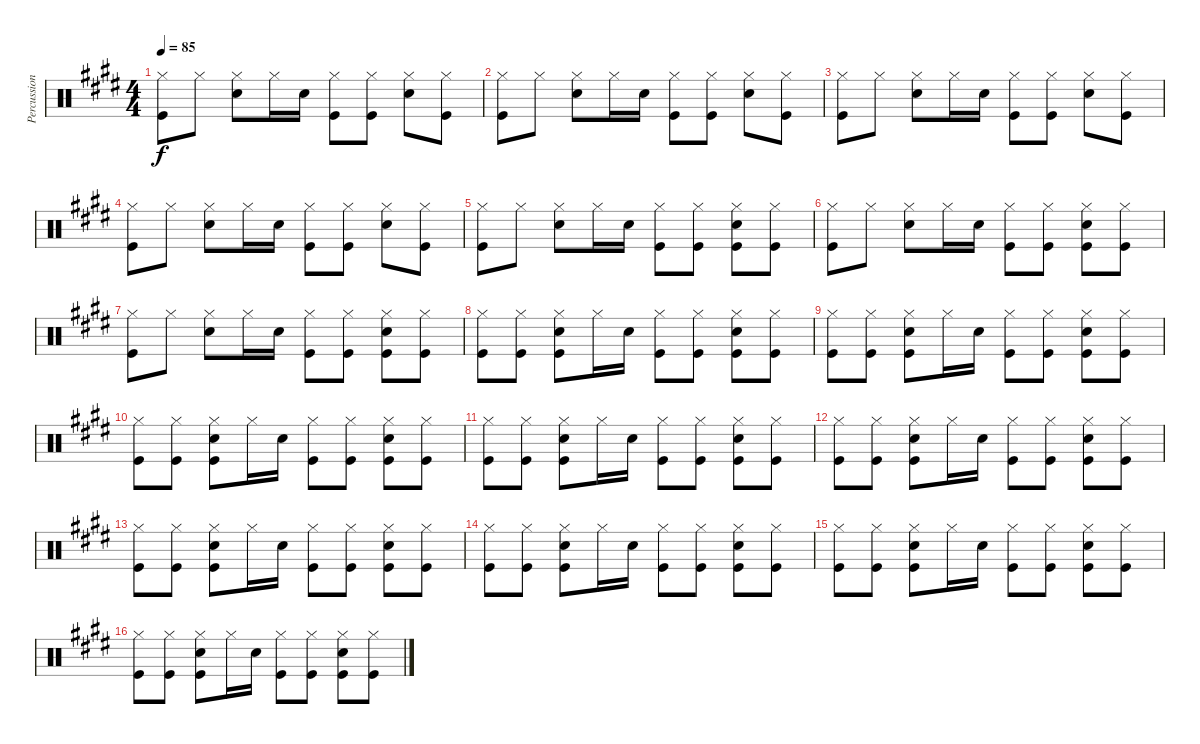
\track ("Percussion" "Percussion") {instrument percussion}
\staff {score}
\articulation defaults
\ts (4 4)
\tempo 85
\clef neutral
\ks e
("Hi-Hat (closed)" "Kick (hit)").8{dy f} "Hi-Hat (closed)".8 ("Hi-Hat (closed)" "Snare (hit) 2").8 "Hi-Hat (closed)".16 "Snare (hit) 2".16 ("Hi-Hat (closed)" "Kick (hit)").8 ("Hi-Hat (closed)" "Kick (hit)").8 ("Hi-Hat (closed)" "Snare (hit) 2").8 ("Hi-Hat (closed)" "Kick (hit)").8 |
("Hi-Hat (closed)" "Kick (hit)").8 "Hi-Hat (closed)".8 ("Hi-Hat (closed)" "Snare (hit) 2").8 "Hi-Hat (closed)".16 "Snare (hit) 2".16 ("Hi-Hat (closed)" "Kick (hit)").8 ("Hi-Hat (closed)" "Kick (hit)").8 ("Hi-Hat (closed)" "Snare (hit) 2").8 ("Hi-Hat (closed)" "Kick (hit)").8 |
("Hi-Hat (closed)" "Kick (hit)").8 "Hi-Hat (closed)".8 ("Hi-Hat (closed)" "Snare (hit) 2").8 "Hi-Hat (closed)".16 "Snare (hit) 2".16 ("Hi-Hat (closed)" "Kick (hit)").8 ("Hi-Hat (closed)" "Kick (hit)").8 ("Hi-Hat (closed)" "Snare (hit) 2").8 ("Hi-Hat (closed)" "Kick (hit)").8 |
("Hi-Hat (closed)" "Kick (hit)").8 "Hi-Hat (closed)".8 ("Hi-Hat (closed)" "Snare (hit) 2").8 "Hi-Hat (closed)".16 "Snare (hit) 2".16 ("Hi-Hat (closed)" "Kick (hit)").8 ("Hi-Hat (closed)" "Kick (hit)").8 ("Hi-Hat (closed)" "Snare (hit) 2").8 ("Hi-Hat (closed)" "Kick (hit)").8 |
("Hi-Hat (closed)" "Kick (hit)").8 "Hi-Hat (closed)".8 ("Hi-Hat (closed)" "Snare (hit) 2").8 "Hi-Hat (closed)".16 "Snare (hit) 2".16 ("Hi-Hat (closed)" "Kick (hit)").8 ("Hi-Hat (closed)" "Kick (hit)").8 ("Hi-Hat (closed)" "Snare (hit) 2" "Kick (hit)").8 ("Hi-Hat (closed)" "Kick (hit)").8 |
("Hi-Hat (closed)" "Kick (hit)").8 "Hi-Hat (closed)".8 ("Hi-Hat (closed)" "Snare (hit) 2").8 "Hi-Hat (closed)".16 "Snare (hit) 2".16 ("Hi-Hat (closed)" "Kick (hit)").8 ("Hi-Hat (closed)" "Kick (hit)").8 ("Hi-Hat (closed)" "Snare (hit) 2" "Kick (hit)").8 ("Hi-Hat (closed)" "Kick (hit)").8 |
("Hi-Hat (closed)" "Kick (hit)").8 "Hi-Hat (closed)".8 ("Hi-Hat (closed)" "Snare (hit) 2").8 "Hi-Hat (closed)".16 "Snare (hit) 2".16 ("Hi-Hat (closed)" "Kick (hit)").8 ("Hi-Hat (closed)" "Kick (hit)").8 ("Hi-Hat (closed)" "Snare (hit) 2" "Kick (hit)").8 ("Hi-Hat (closed)" "Kick (hit)").8 |
("Hi-Hat (closed)" "Kick (hit)").8 ("Hi-Hat (closed)" "Kick (hit)").8 ("Hi-Hat (closed)" "Snare (hit) 2" "Kick (hit)").8 "Hi-Hat (closed)".16 "Snare (hit) 2".16 ("Hi-Hat (closed)" "Kick (hit)").8 ("Hi-Hat (closed)" "Kick (hit)").8 ("Hi-Hat (closed)" "Snare (hit) 2" "Kick (hit)").8 ("Hi-Hat (closed)" "Kick (hit)").8 |
("Hi-Hat (closed)" "Kick (hit)").8 ("Hi-Hat (closed)" "Kick (hit)").8 ("Hi-Hat (closed)" "Snare (hit) 2" "Kick (hit)").8 "Hi-Hat (closed)".16 "Snare (hit) 2".16 ("Hi-Hat (closed)" "Kick (hit)").8 ("Hi-Hat (closed)" "Kick (hit)").8 ("Hi-Hat (closed)" "Snare (hit) 2" "Kick (hit)").8 ("Hi-Hat (closed)" "Kick (hit)").8 |
("Hi-Hat (closed)" "Kick (hit)").8 ("Hi-Hat (closed)" "Kick (hit)").8 ("Hi-Hat (closed)" "Snare (hit) 2" "Kick (hit)").8 "Hi-Hat (closed)".16 "Snare (hit) 2".16 ("Hi-Hat (closed)" "Kick (hit)").8 ("Hi-Hat (closed)" "Kick (hit)").8 ("Hi-Hat (closed)" "Snare (hit) 2" "Kick (hit)").8 ("Hi-Hat (closed)" "Kick (hit)").8 |
("Hi-Hat (closed)" "Kick (hit)").8 ("Hi-Hat (closed)" "Kick (hit)").8 ("Hi-Hat (closed)" "Snare (hit) 2" "Kick (hit)").8 "Hi-Hat (closed)".16 "Snare (hit) 2".16 ("Hi-Hat (closed)" "Kick (hit)").8 ("Hi-Hat (closed)" "Kick (hit)").8 ("Hi-Hat (closed)" "Snare (hit) 2" "Kick (hit)").8 ("Hi-Hat (closed)" "Kick (hit)").8 |
("Hi-Hat (closed)" "Kick (hit)").8 ("Hi-Hat (closed)" "Kick (hit)").8 ("Hi-Hat (closed)" "Snare (hit) 2" "Kick (hit)").8 "Hi-Hat (closed)".16 "Snare (hit) 2".16 ("Hi-Hat (closed)" "Kick (hit)").8 ("Hi-Hat (closed)" "Kick (hit)").8 ("Hi-Hat (closed)" "Snare (hit) 2" "Kick (hit)").8 ("Hi-Hat (closed)" "Kick (hit)").8 |
("Hi-Hat (closed)" "Kick (hit)").8 ("Hi-Hat (closed)" "Kick (hit)").8 ("Hi-Hat (closed)" "Snare (hit) 2" "Kick (hit)").8 "Hi-Hat (closed)".16 "Snare (hit) 2".16 ("Hi-Hat (closed)" "Kick (hit)").8 ("Hi-Hat (closed)" "Kick (hit)").8 ("Hi-Hat (closed)" "Snare (hit) 2" "Kick (hit)").8 ("Hi-Hat (closed)" "Kick (hit)").8 |
("Hi-Hat (closed)" "Kick (hit)").8 ("Hi-Hat (closed)" "Kick (hit)").8 ("Hi-Hat (closed)" "Snare (hit) 2" "Kick (hit)").8 "Hi-Hat (closed)".16 "Snare (hit) 2".16 ("Hi-Hat (closed)" "Kick (hit)").8 ("Hi-Hat (closed)" "Kick (hit)").8 ("Hi-Hat (closed)" "Snare (hit) 2" "Kick (hit)").8 ("Hi-Hat (closed)" "Kick (hit)").8 |
("Hi-Hat (closed)" "Kick (hit)").8 ("Hi-Hat (closed)" "Kick (hit)").8 ("Hi-Hat (closed)" "Snare (hit) 2" "Kick (hit)").8 "Hi-Hat (closed)".16 "Snare (hit) 2".16 ("Hi-Hat (closed)" "Kick (hit)").8 ("Hi-Hat (closed)" "Kick (hit)").8 ("Hi-Hat (closed)" "Snare (hit) 2" "Kick (hit)").8 ("Hi-Hat (closed)" "Kick (hit)").8 |
("Hi-Hat (closed)" "Kick (hit)").8 ("Hi-Hat (closed)" "Kick (hit)").8 ("Hi-Hat (closed)" "Snare (hit) 2" "Kick (hit)").8 "Hi-Hat (closed)".16 "Snare (hit) 2".16 ("Hi-Hat (closed)" "Kick (hit)").8 ("Hi-Hat (closed)" "Kick (hit)").8 ("Hi-Hat (closed)" "Snare (hit) 2" "Kick (hit)").8 ("Hi-Hat (closed)" "Kick (hit)").8
